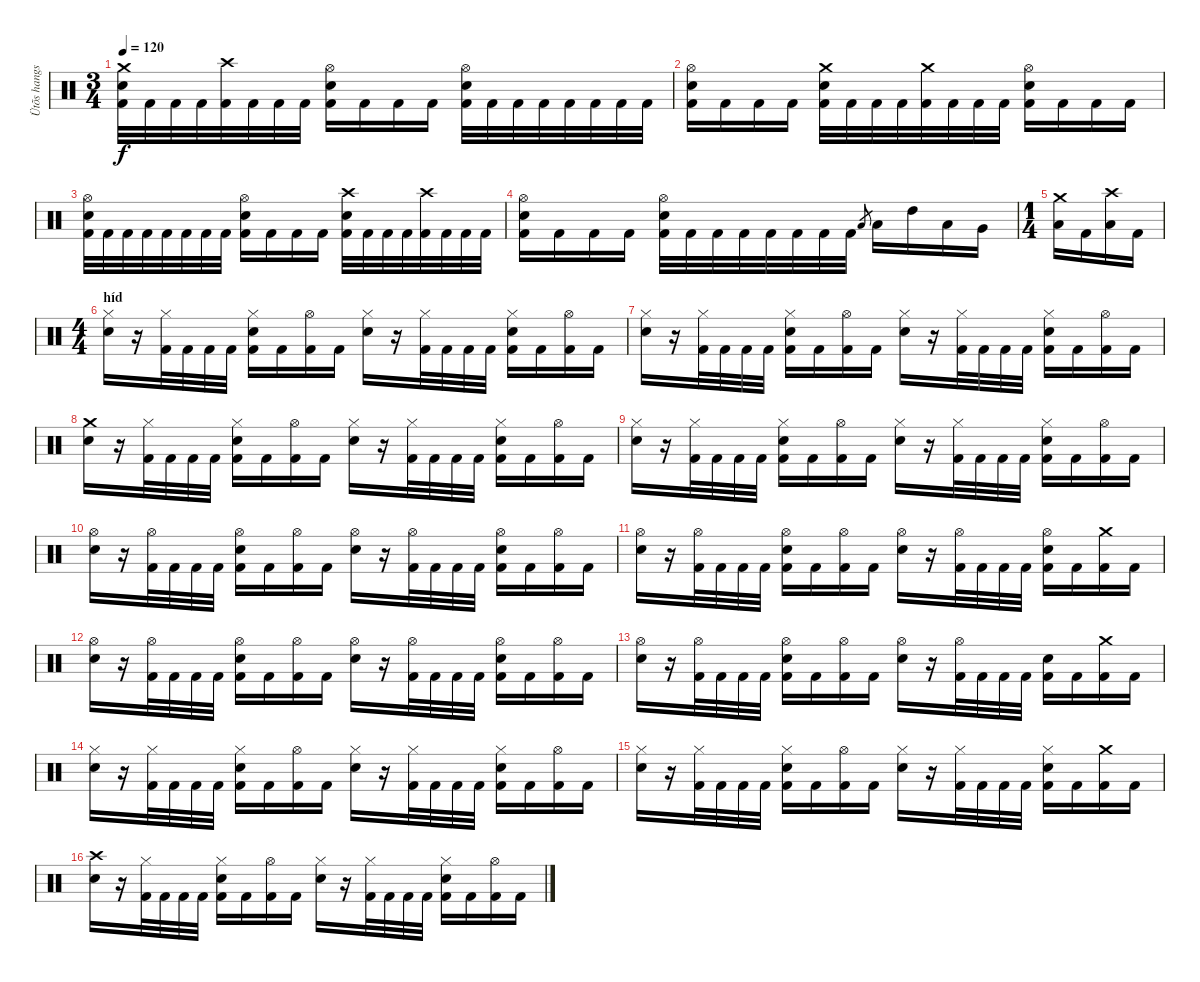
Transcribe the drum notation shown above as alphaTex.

\track ("Ütõs hangszer" "Ütõs hangs") {instrument percussion}
\staff {score}
\articulation defaults
\ts (3 4)
\tempo 120
\clef neutral
\ks c
("Crash medium (hit)" "Electric Snare (hit)" "Kick (hit) 2").32{dy f} "Kick (hit) 2".32 "Kick (hit) 2".32 "Kick (hit) 2".32 ("Crash high (hit)" "Kick (hit) 2").32 "Kick (hit) 2".32 "Kick (hit) 2".32 "Kick (hit) 2".32 ("Hi-Hat (open)" "Electric Snare (hit)" "Kick (hit) 2").16 "Kick (hit) 2".16 "Kick (hit) 2".16 "Kick (hit) 2".16 ("Hi-Hat (open)" "Electric Snare (hit)" "Kick (hit) 2").32 "Kick (hit) 2".32 "Kick (hit) 2".32 "Kick (hit) 2".32 "Kick (hit) 2".32 "Kick (hit) 2".32 "Kick (hit) 2".32 "Kick (hit) 2".32 |
("Hi-Hat (open)" "Electric Snare (hit)" "Kick (hit) 2").16 "Kick (hit) 2".16 "Kick (hit) 2".16 "Kick (hit) 2".16 ("Crash medium (hit)" "Electric Snare (hit)" "Kick (hit) 2").32 "Kick (hit) 2".32 "Kick (hit) 2".32 "Kick (hit) 2".32 ("Crash medium (hit)" "Kick (hit) 2").32 "Kick (hit) 2".32 "Kick (hit) 2".32 "Kick (hit) 2".32 ("Hi-Hat (open)" "Electric Snare (hit)" "Kick (hit) 2").16 "Kick (hit) 2".16 "Kick (hit) 2".16 "Kick (hit) 2".16 |
("Hi-Hat (open)" "Electric Snare (hit)" "Kick (hit) 2").32 "Kick (hit) 2".32 "Kick (hit) 2".32 "Kick (hit) 2".32 "Kick (hit) 2".32 "Kick (hit) 2".32 "Kick (hit) 2".32 "Kick (hit) 2".32 ("Hi-Hat (open)" "Electric Snare (hit)" "Kick (hit) 2").16 "Kick (hit) 2".16 "Kick (hit) 2".16 "Kick (hit) 2".16 ("Crash high (hit)" "Electric Snare (hit)" "Kick (hit) 2").32 "Kick (hit) 2".32 "Kick (hit) 2".32 "Kick (hit) 2".32 ("Crash high (hit)" "Kick (hit) 2").32 "Kick (hit) 2".32 "Kick (hit) 2".32 "Kick (hit) 2".32 |
("Hi-Hat (open)" "Electric Snare (hit)" "Kick (hit) 2").16 "Kick (hit) 2".16 "Kick (hit) 2".16 "Kick (hit) 2".16 ("Hi-Hat (open)" "Electric Snare (hit)" "Kick (hit) 2").32 "Kick (hit) 2".32 "Kick (hit) 2".32 "Kick (hit) 2".32 "Kick (hit) 2".32 "Kick (hit) 2".32 "Kick (hit) 2".32 "Kick (hit) 2".32 "Low Tom (hit)".8{gr} "Low Tom (hit)".16 "High Tom (hit)".16 "Low Tom (hit)".16 "Very Low Tom (hit)".16 |
\ts (1 4)
("Crash medium (hit)" "Low Floor Tom (hit)").16 "Kick (hit) 2".16 ("Crash high (hit)" "Low Floor Tom (hit)").16 "Kick (hit) 2".16 |
\ts (4 4)
\section ("" "híd")
("Hi-Hat (closed)" "Electric Snare (hit)").16 r.16 ("Hi-Hat (closed)" "Kick (hit) 2").32 "Kick (hit) 2".32 "Kick (hit) 2".32 "Kick (hit) 2".32 ("Hi-Hat (closed)" "Electric Snare (hit)" "Kick (hit) 2").16 "Kick (hit) 2".16 ("Hi-Hat (open)" "Kick (hit) 2").16 "Kick (hit) 2".16 ("Hi-Hat (closed)" "Electric Snare (hit)").16 r.16 ("Hi-Hat (closed)" "Kick (hit) 2").32 "Kick (hit) 2".32 "Kick (hit) 2".32 "Kick (hit) 2".32 ("Hi-Hat (closed)" "Electric Snare (hit)" "Kick (hit) 2").16 "Kick (hit) 2".16 ("Hi-Hat (open)" "Kick (hit) 2").16 "Kick (hit) 2".16 |
("Hi-Hat (closed)" "Electric Snare (hit)").16 r.16 ("Hi-Hat (closed)" "Kick (hit) 2").32 "Kick (hit) 2".32 "Kick (hit) 2".32 "Kick (hit) 2".32 ("Hi-Hat (closed)" "Electric Snare (hit)" "Kick (hit) 2").16 "Kick (hit) 2".16 ("Hi-Hat (open)" "Kick (hit) 2").16 "Kick (hit) 2".16 ("Hi-Hat (closed)" "Electric Snare (hit)").16 r.16 ("Hi-Hat (closed)" "Kick (hit) 2").32 "Kick (hit) 2".32 "Kick (hit) 2".32 "Kick (hit) 2".32 ("Hi-Hat (closed)" "Electric Snare (hit)" "Kick (hit) 2").16 "Kick (hit) 2".16 ("Hi-Hat (open)" "Kick (hit) 2").16 "Kick (hit) 2".16 |
("Crash medium (hit)" "Electric Snare (hit)").16 r.16 ("Hi-Hat (closed)" "Kick (hit) 2").32 "Kick (hit) 2".32 "Kick (hit) 2".32 "Kick (hit) 2".32 ("Hi-Hat (closed)" "Electric Snare (hit)" "Kick (hit) 2").16 "Kick (hit) 2".16 ("Hi-Hat (open)" "Kick (hit) 2").16 "Kick (hit) 2".16 ("Hi-Hat (closed)" "Electric Snare (hit)").16 r.16 ("Hi-Hat (closed)" "Kick (hit) 2").32 "Kick (hit) 2".32 "Kick (hit) 2".32 "Kick (hit) 2".32 ("Hi-Hat (closed)" "Electric Snare (hit)" "Kick (hit) 2").16 "Kick (hit) 2".16 ("Hi-Hat (open)" "Kick (hit) 2").16 "Kick (hit) 2".16 |
("Hi-Hat (closed)" "Electric Snare (hit)").16 r.16 ("Hi-Hat (closed)" "Kick (hit) 2").32 "Kick (hit) 2".32 "Kick (hit) 2".32 "Kick (hit) 2".32 ("Hi-Hat (closed)" "Electric Snare (hit)" "Kick (hit) 2").16 "Kick (hit) 2".16 ("Hi-Hat (open)" "Kick (hit) 2").16 "Kick (hit) 2".16 ("Hi-Hat (closed)" "Electric Snare (hit)").16 r.16 ("Hi-Hat (closed)" "Kick (hit) 2").32 "Kick (hit) 2".32 "Kick (hit) 2".32 "Kick (hit) 2".32 ("Hi-Hat (closed)" "Electric Snare (hit)" "Kick (hit) 2").16 "Kick (hit) 2".16 ("Hi-Hat (open)" "Kick (hit) 2").16 "Kick (hit) 2".16 |
("Hi-Hat (open)" "Electric Snare (hit)").16 r.16 ("Hi-Hat (open)" "Kick (hit) 2").32 "Kick (hit) 2".32 "Kick (hit) 2".32 "Kick (hit) 2".32 ("Hi-Hat (open)" "Electric Snare (hit)" "Kick (hit) 2").16 "Kick (hit) 2".16 ("Hi-Hat (open)" "Kick (hit) 2").16 "Kick (hit) 2".16 ("Hi-Hat (open)" "Electric Snare (hit)").16 r.16 ("Hi-Hat (open)" "Kick (hit) 2").32 "Kick (hit) 2".32 "Kick (hit) 2".32 "Kick (hit) 2".32 ("Hi-Hat (open)" "Electric Snare (hit)" "Kick (hit) 2").16 "Kick (hit) 2".16 ("Hi-Hat (open)" "Kick (hit) 2").16 "Kick (hit) 2".16 |
("Hi-Hat (open)" "Electric Snare (hit)").16 r.16 ("Hi-Hat (open)" "Kick (hit) 2").32 "Kick (hit) 2".32 "Kick (hit) 2".32 "Kick (hit) 2".32 ("Hi-Hat (open)" "Electric Snare (hit)" "Kick (hit) 2").16 "Kick (hit) 2".16 ("Hi-Hat (open)" "Kick (hit) 2").16 "Kick (hit) 2".16 ("Hi-Hat (open)" "Electric Snare (hit)").16 r.16 ("Hi-Hat (open)" "Kick (hit) 2").32 "Kick (hit) 2".32 "Kick (hit) 2".32 "Kick (hit) 2".32 ("Hi-Hat (open)" "Electric Snare (hit)" "Kick (hit) 2").16 "Kick (hit) 2".16 ("Crash medium (hit)" "Kick (hit) 2").16 "Kick (hit) 2".16 |
("Hi-Hat (open)" "Electric Snare (hit)").16 r.16 ("Hi-Hat (open)" "Kick (hit) 2").32 "Kick (hit) 2".32 "Kick (hit) 2".32 "Kick (hit) 2".32 ("Hi-Hat (open)" "Electric Snare (hit)" "Kick (hit) 2").16 "Kick (hit) 2".16 ("Hi-Hat (open)" "Kick (hit) 2").16 "Kick (hit) 2".16 ("Hi-Hat (open)" "Electric Snare (hit)").16 r.16 ("Hi-Hat (open)" "Kick (hit) 2").32 "Kick (hit) 2".32 "Kick (hit) 2".32 "Kick (hit) 2".32 ("Hi-Hat (open)" "Electric Snare (hit)" "Kick (hit) 2").16 "Kick (hit) 2".16 ("Hi-Hat (open)" "Kick (hit) 2").16 "Kick (hit) 2".16 |
("Hi-Hat (open)" "Electric Snare (hit)").16 r.16 ("Hi-Hat (open)" "Kick (hit) 2").32 "Kick (hit) 2".32 "Kick (hit) 2".32 "Kick (hit) 2".32 ("Hi-Hat (open)" "Electric Snare (hit)" "Kick (hit) 2").16 "Kick (hit) 2".16 ("Hi-Hat (open)" "Kick (hit) 2").16 "Kick (hit) 2".16 ("Hi-Hat (open)" "Electric Snare (hit)").16 r.16 ("Hi-Hat (open)" "Kick (hit) 2").32 "Kick (hit) 2".32 "Kick (hit) 2".32 "Kick (hit) 2".32 ("Electric Snare (hit)" "Kick (hit) 2").16 "Kick (hit) 2".16 ("Crash medium (hit)" "Kick (hit) 2").16 "Kick (hit) 2".16 |
("Hi-Hat (closed)" "Electric Snare (hit)").16 r.16 ("Hi-Hat (closed)" "Kick (hit) 2").32 "Kick (hit) 2".32 "Kick (hit) 2".32 "Kick (hit) 2".32 ("Hi-Hat (closed)" "Electric Snare (hit)" "Kick (hit) 2").16 "Kick (hit) 2".16 ("Hi-Hat (open)" "Kick (hit) 2").16 "Kick (hit) 2".16 ("Hi-Hat (closed)" "Electric Snare (hit)").16 r.16 ("Hi-Hat (closed)" "Kick (hit) 2").32 "Kick (hit) 2".32 "Kick (hit) 2".32 "Kick (hit) 2".32 ("Hi-Hat (closed)" "Electric Snare (hit)" "Kick (hit) 2").16 "Kick (hit) 2".16 ("Hi-Hat (open)" "Kick (hit) 2").16 "Kick (hit) 2".16 |
("Hi-Hat (closed)" "Electric Snare (hit)").16 r.16 ("Hi-Hat (closed)" "Kick (hit) 2").32 "Kick (hit) 2".32 "Kick (hit) 2".32 "Kick (hit) 2".32 ("Hi-Hat (closed)" "Electric Snare (hit)" "Kick (hit) 2").16 "Kick (hit) 2".16 ("Hi-Hat (open)" "Kick (hit) 2").16 "Kick (hit) 2".16 ("Hi-Hat (closed)" "Electric Snare (hit)").16 r.16 ("Hi-Hat (closed)" "Kick (hit) 2").32 "Kick (hit) 2".32 "Kick (hit) 2".32 "Kick (hit) 2".32 ("Hi-Hat (closed)" "Electric Snare (hit)" "Kick (hit) 2").16 "Kick (hit) 2".16 ("Crash medium (hit)" "Kick (hit) 2").16 "Kick (hit) 2".16 |
("Crash high (hit)" "Electric Snare (hit)").16 r.16 ("Hi-Hat (closed)" "Kick (hit) 2").32 "Kick (hit) 2".32 "Kick (hit) 2".32 "Kick (hit) 2".32 ("Hi-Hat (closed)" "Electric Snare (hit)" "Kick (hit) 2").16 "Kick (hit) 2".16 ("Hi-Hat (open)" "Kick (hit) 2").16 "Kick (hit) 2".16 ("Hi-Hat (closed)" "Electric Snare (hit)").16 r.16 ("Hi-Hat (closed)" "Kick (hit) 2").32 "Kick (hit) 2".32 "Kick (hit) 2".32 "Kick (hit) 2".32 ("Hi-Hat (closed)" "Electric Snare (hit)" "Kick (hit) 2").16 "Kick (hit) 2".16 ("Hi-Hat (open)" "Kick (hit) 2").16 "Kick (hit) 2".16
